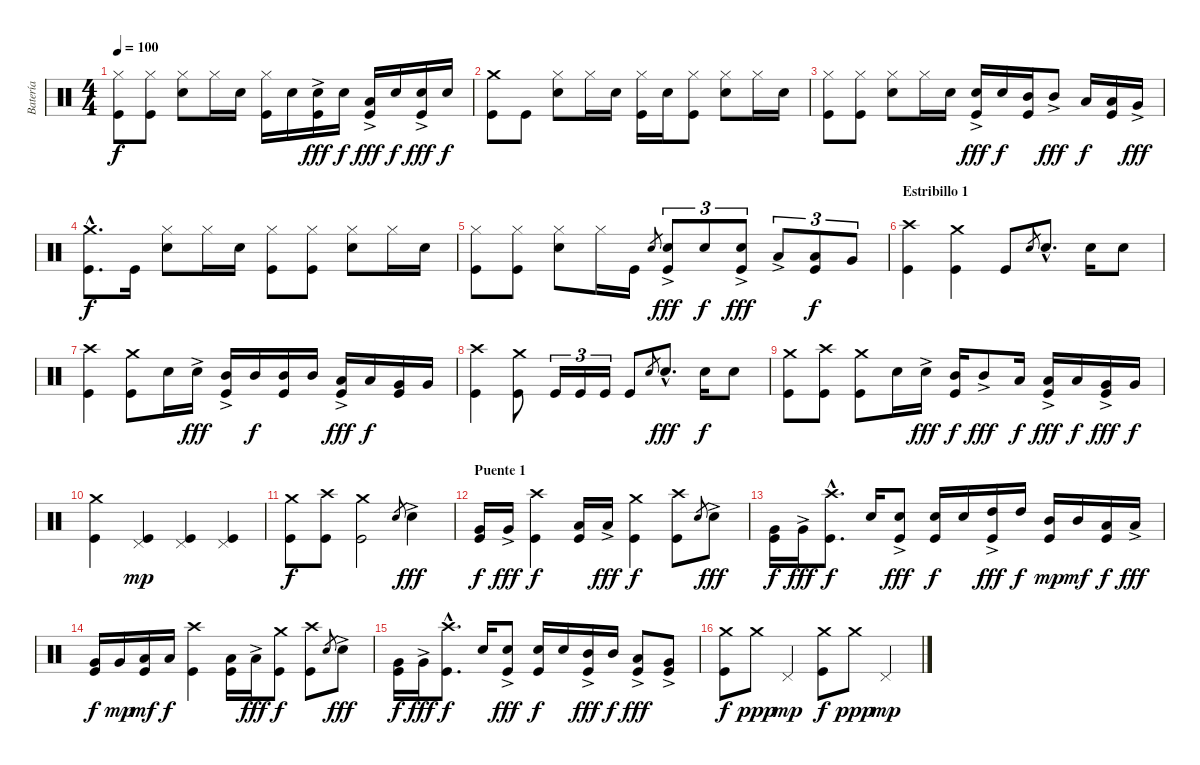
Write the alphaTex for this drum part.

\track ("Batería" "Batería") {instrument percussion}
\staff {score}
\articulation defaults
\ts (4 4)
\tempo 100
\clef neutral
\ks c
("Kick (hit)" "Hi-Hat (closed)").8{dy f} ("Kick (hit)" "Hi-Hat (closed)").8 ("Electric Snare (hit)" "Hi-Hat (closed)").8 "Hi-Hat (closed)".16 "Electric Snare (hit)".16 ("Kick (hit)" "Hi-Hat (closed)").16 "Electric Snare (hit)".16 ("Kick (hit)" "Electric Snare (hit)"{ac}).16{dy fff} "Electric Snare (hit)".16{dy f} ("Kick (hit)" "Low Tom (hit)"{ac}).16{dy fff} "Electric Snare (hit)".16{dy f} ("Kick (hit)" "Electric Snare (hit)"{ac}).16{dy fff} "Electric Snare (hit)".16{dy f} |
("Kick (hit)" "Crash medium (hit)").8 "Kick (hit)".8 ("Electric Snare (hit)" "Hi-Hat (closed)").8 "Hi-Hat (closed)".16 "Electric Snare (hit)".16 ("Kick (hit)" "Hi-Hat (closed)").16 "Electric Snare (hit)".16 ("Kick (hit)" "Hi-Hat (closed)").8 ("Electric Snare (hit)" "Hi-Hat (closed)").8 "Hi-Hat (closed)".16 "Electric Snare (hit)".16 |
("Kick (hit)" "Hi-Hat (closed)").8 ("Kick (hit)" "Hi-Hat (closed)").8 ("Electric Snare (hit)" "Hi-Hat (closed)").8 "Hi-Hat (closed)".16 "Electric Snare (hit)".16 ("Kick (hit)" "Electric Snare (hit)"{ac}).16{dy fff} "Electric Snare (hit)".16{dy f} ("Kick (hit)" "Mid Tom (hit)").16 "Mid Tom (hit)"{ac}.8{dy fff} "Low Tom (hit)".16{dy f} ("Kick (hit)" "Low Tom (hit)").16 "Very Low Tom (hit)"{ac}.16{dy fff} |
("Kick (hit)"{hac} "Crash medium (hit)"{hac}).8{d dy f} "Kick (hit)".16 ("Electric Snare (hit)" "Hi-Hat (closed)").8 "Hi-Hat (closed)".16 "Electric Snare (hit)".16 ("Kick (hit)" "Hi-Hat (closed)").8 ("Kick (hit)" "Hi-Hat (closed)").8 ("Electric Snare (hit)" "Hi-Hat (closed)").8 "Hi-Hat (closed)".16 "Electric Snare (hit)".16 |
("Kick (hit)" "Hi-Hat (closed)").8 ("Kick (hit)" "Hi-Hat (closed)").8 ("Electric Snare (hit)" "Hi-Hat (closed)").8 "Hi-Hat (closed)".16 "Kick (hit)".16 "Electric Snare (hit)".8{gr} ("Kick (hit)" "Electric Snare (hit)"{ac}).8{tu (3 2) dy fff} "Electric Snare (hit)".8{tu (3 2) dy f} ("Kick (hit)" "Electric Snare (hit)"{ac}).8{tu (3 2) dy fff} "Low Tom (hit)"{ac}.8{tu (3 2)} ("Kick (hit)" "Low Tom (hit)").8{tu (3 2) dy f} "Very Low Tom (hit)".8{tu (3 2)} |
\section ("" "Estribillo 1")
("Kick (hit)" "Crash high (hit)").4 ("Kick (hit)" "Crash medium (hit)").4 "Kick (hit)".8 "Electric Snare (hit)".8{gr} "Electric Snare (hit)"{hac}.8{d} "Electric Snare (hit)".16 "Electric Snare (hit)".8 |
("Kick (hit)" "Crash high (hit)").4 ("Kick (hit)" "Crash medium (hit)").8 "Electric Snare (hit)".16 "Electric Snare (hit)"{ac}.16{dy fff} ("Kick (hit)" "Mid Tom (hit)"{ac}).16 "Mid Tom (hit)".16{dy f} ("Kick (hit)" "Mid Tom (hit)").16 "Mid Tom (hit)".16 ("Kick (hit)" "Low Tom (hit)"{ac}).16{dy fff} "Low Tom (hit)".16{dy f} ("Kick (hit)" "Very Low Tom (hit)").16 "Very Low Tom (hit)".16 |
("Kick (hit)" "Crash high (hit)").4 ("Kick (hit)" "Crash medium (hit)").8 "Kick (hit)".16{tu (3 2)} "Kick (hit)".16{tu (3 2)} "Kick (hit)".16{tu (3 2)} "Kick (hit)".8 "Electric Snare (hit)".8{gr} "Electric Snare (hit)"{hac}.8{d dy fff} "Electric Snare (hit)".16{dy f} "Electric Snare (hit)".8 |
("Kick (hit)" "Crash medium (hit)").8 ("Kick (hit)" "Crash high (hit)").8 ("Kick (hit)" "Crash medium (hit)").8 "Electric Snare (hit)".16 "Electric Snare (hit)"{ac}.16{dy fff} ("Kick (hit)" "Mid Tom (hit)").16{dy f} "Mid Tom (hit)"{ac}.8{dy fff} "Low Tom (hit)".16{dy f} ("Kick (hit)" "Low Tom (hit)"{ac}).16{dy fff} "Low Tom (hit)".16{dy f} ("Kick (hit)" "Very Low Tom (hit)"{ac}).16{dy fff} "Very Low Tom (hit)".16{dy f} |
("Kick (hit)" "Crash medium (hit)").4 ("Kick (hit)" "Pedal Hi-Hat (hit)").4{dy mp} ("Kick (hit)" "Pedal Hi-Hat (hit)").4 ("Kick (hit)" "Pedal Hi-Hat (hit)").4 |
("Kick (hit)" "Crash medium (hit)").8{dy f} ("Kick (hit)" "Crash high (hit)").8 ("Kick (hit)" "Crash medium (hit)").2 "Electric Snare (hit)".8{gr} "Electric Snare (hit)"{ac}.4{dy fff} |
\section ("" "Puente 1")
("Kick (hit)" "Very Low Tom (hit)").16{dy f} "Very Low Tom (hit)"{ac}.16{dy fff} ("Kick (hit)" "Crash high (hit)").4{dy f} ("Kick (hit)" "Low Tom (hit)").16 "Low Tom (hit)"{ac}.16{dy fff} ("Kick (hit)" "Crash medium (hit)").4{dy f} ("Kick (hit)" "Crash high (hit)").8 "Electric Snare (hit)".8{gr} "Electric Snare (hit)"{ac}.8{dy fff} |
("Kick (hit)" "Very Low Tom (hit)").16{dy f} "Very Low Tom (hit)"{ac}.16{dy fff} ("Kick (hit)"{hac} "Crash high (hit)"{hac}).8{d dy f} "Electric Snare (hit)".16 ("Kick (hit)" "Electric Snare (hit)"{ac}).8{dy fff} ("Kick (hit)" "Electric Snare (hit)").16{dy f} "Electric Snare (hit)".16 ("Kick (hit)" "High Tom (hit)"{ac}).16{dy fff} "High Tom (hit)".16{dy f} ("Kick (hit)" "Mid Tom (hit)").16{dy mp} "Mid Tom (hit)".16{dy mf} ("Kick (hit)" "Low Tom (hit)").16{dy f} "Low Tom (hit)"{ac}.16{dy fff} |
("Kick (hit)" "Very Low Tom (hit)").16{dy f} "Very Low Tom (hit)".16{dy mp} ("Kick (hit)" "Low Floor Tom (hit)").16{dy mf} "Low Floor Tom (hit)".16{dy f} ("Kick (hit)" "Crash high (hit)").4 ("Kick (hit)" "Low Tom (hit)").16 "Low Tom (hit)"{ac}.16{dy fff} ("Kick (hit)" "Crash medium (hit)").8{dy f} ("Kick (hit)" "Crash high (hit)").8 "Electric Snare (hit)".8{gr} "Electric Snare (hit)"{ac}.8{dy fff} |
("Kick (hit)" "Very Low Tom (hit)").16{dy f} "Very Low Tom (hit)"{ac}.16{dy fff} ("Kick (hit)"{hac} "Crash high (hit)"{hac}).8{d dy f} "Electric Snare (hit)".16 ("Kick (hit)" "Electric Snare (hit)"{ac}).8{dy fff} ("Kick (hit)" "Electric Snare (hit)").16{dy f} "Electric Snare (hit)".16 ("Kick (hit)" "Mid Tom (hit)"{ac}).16{dy fff} "Mid Tom (hit)".16{dy f} ("Kick (hit)" "Low Tom (hit)"{ac}).8{dy fff} ("Kick (hit)" "Very Low Tom (hit)"{ac}).8 |
("Kick (hit)" "Crash medium (hit)").8{dy f} "Crash medium (hit)".8{dy ppp} "Pedal Hi-Hat (hit)".4{dy mp} ("Kick (hit)" "Crash medium (hit)").8{dy f} "Crash medium (hit)".8{dy ppp} "Pedal Hi-Hat (hit)".4{dy mp}
